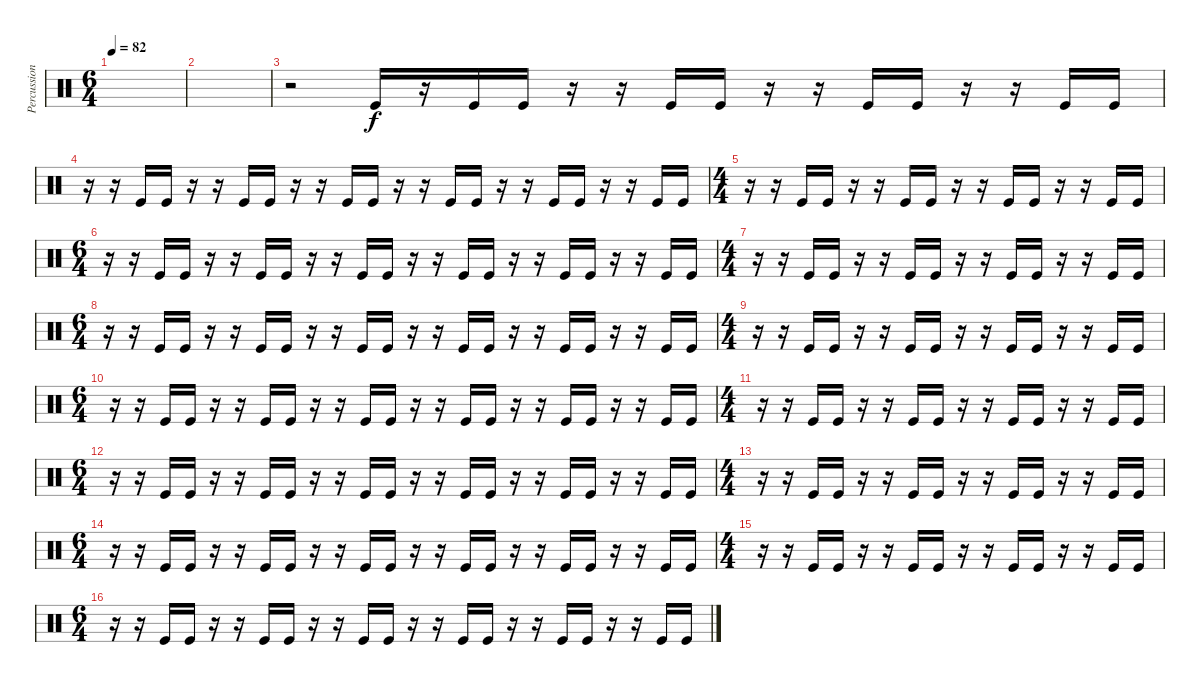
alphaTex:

\track ("Percussion" "Percussion") {instrument percussion}
\staff {score}
\articulation defaults
\ts (6 4)
\tempo 82
\clef neutral
\ks c
|
|
r.2 "Kick (hit)".16 r.16 "Kick (hit)".16 "Kick (hit)".16 r.16 r.16 "Kick (hit)".16 "Kick (hit)".16 r.16 r.16 "Kick (hit)".16 "Kick (hit)".16 r.16 r.16 "Kick (hit)".16 "Kick (hit)".16 |
r.16 r.16 "Kick (hit)".16 "Kick (hit)".16 r.16 r.16 "Kick (hit)".16 "Kick (hit)".16 r.16 r.16 "Kick (hit)".16 "Kick (hit)".16 r.16 r.16 "Kick (hit)".16 "Kick (hit)".16 r.16 r.16 "Kick (hit)".16 "Kick (hit)".16 r.16 r.16 "Kick (hit)".16 "Kick (hit)".16 |
\ts (4 4)
r.16 r.16 "Kick (hit)".16 "Kick (hit)".16 r.16 r.16 "Kick (hit)".16 "Kick (hit)".16 r.16 r.16 "Kick (hit)".16 "Kick (hit)".16 r.16 r.16 "Kick (hit)".16 "Kick (hit)".16 |
\ts (6 4)
r.16 r.16 "Kick (hit)".16 "Kick (hit)".16 r.16 r.16 "Kick (hit)".16 "Kick (hit)".16 r.16 r.16 "Kick (hit)".16 "Kick (hit)".16 r.16 r.16 "Kick (hit)".16 "Kick (hit)".16 r.16 r.16 "Kick (hit)".16 "Kick (hit)".16 r.16 r.16 "Kick (hit)".16 "Kick (hit)".16 |
\ts (4 4)
r.16 r.16 "Kick (hit)".16 "Kick (hit)".16 r.16 r.16 "Kick (hit)".16 "Kick (hit)".16 r.16 r.16 "Kick (hit)".16 "Kick (hit)".16 r.16 r.16 "Kick (hit)".16 "Kick (hit)".16 |
\ts (6 4)
r.16 r.16 "Kick (hit)".16 "Kick (hit)".16 r.16 r.16 "Kick (hit)".16 "Kick (hit)".16 r.16 r.16 "Kick (hit)".16 "Kick (hit)".16 r.16 r.16 "Kick (hit)".16 "Kick (hit)".16 r.16 r.16 "Kick (hit)".16 "Kick (hit)".16 r.16 r.16 "Kick (hit)".16 "Kick (hit)".16 |
\ts (4 4)
r.16 r.16 "Kick (hit)".16 "Kick (hit)".16 r.16 r.16 "Kick (hit)".16 "Kick (hit)".16 r.16 r.16 "Kick (hit)".16 "Kick (hit)".16 r.16 r.16 "Kick (hit)".16 "Kick (hit)".16 |
\ts (6 4)
r.16 r.16 "Kick (hit)".16 "Kick (hit)".16 r.16 r.16 "Kick (hit)".16 "Kick (hit)".16 r.16 r.16 "Kick (hit)".16 "Kick (hit)".16 r.16 r.16 "Kick (hit)".16 "Kick (hit)".16 r.16 r.16 "Kick (hit)".16 "Kick (hit)".16 r.16 r.16 "Kick (hit)".16 "Kick (hit)".16 |
\ts (4 4)
r.16 r.16 "Kick (hit)".16 "Kick (hit)".16 r.16 r.16 "Kick (hit)".16 "Kick (hit)".16 r.16 r.16 "Kick (hit)".16 "Kick (hit)".16 r.16 r.16 "Kick (hit)".16 "Kick (hit)".16 |
\ts (6 4)
r.16 r.16 "Kick (hit)".16 "Kick (hit)".16 r.16 r.16 "Kick (hit)".16 "Kick (hit)".16 r.16 r.16 "Kick (hit)".16 "Kick (hit)".16 r.16 r.16 "Kick (hit)".16 "Kick (hit)".16 r.16 r.16 "Kick (hit)".16 "Kick (hit)".16 r.16 r.16 "Kick (hit)".16 "Kick (hit)".16 |
\ts (4 4)
r.16 r.16 "Kick (hit)".16 "Kick (hit)".16 r.16 r.16 "Kick (hit)".16 "Kick (hit)".16 r.16 r.16 "Kick (hit)".16 "Kick (hit)".16 r.16 r.16 "Kick (hit)".16 "Kick (hit)".16 |
\ts (6 4)
r.16 r.16 "Kick (hit)".16 "Kick (hit)".16 r.16 r.16 "Kick (hit)".16 "Kick (hit)".16 r.16 r.16 "Kick (hit)".16 "Kick (hit)".16 r.16 r.16 "Kick (hit)".16 "Kick (hit)".16 r.16 r.16 "Kick (hit)".16 "Kick (hit)".16 r.16 r.16 "Kick (hit)".16 "Kick (hit)".16 |
\ts (4 4)
r.16 r.16 "Kick (hit)".16 "Kick (hit)".16 r.16 r.16 "Kick (hit)".16 "Kick (hit)".16 r.16 r.16 "Kick (hit)".16 "Kick (hit)".16 r.16 r.16 "Kick (hit)".16 "Kick (hit)".16 |
\ts (6 4)
r.16 r.16 "Kick (hit)".16 "Kick (hit)".16 r.16 r.16 "Kick (hit)".16 "Kick (hit)".16 r.16 r.16 "Kick (hit)".16 "Kick (hit)".16 r.16 r.16 "Kick (hit)".16 "Kick (hit)".16 r.16 r.16 "Kick (hit)".16 "Kick (hit)".16 r.16 r.16 "Kick (hit)".16 "Kick (hit)".16
